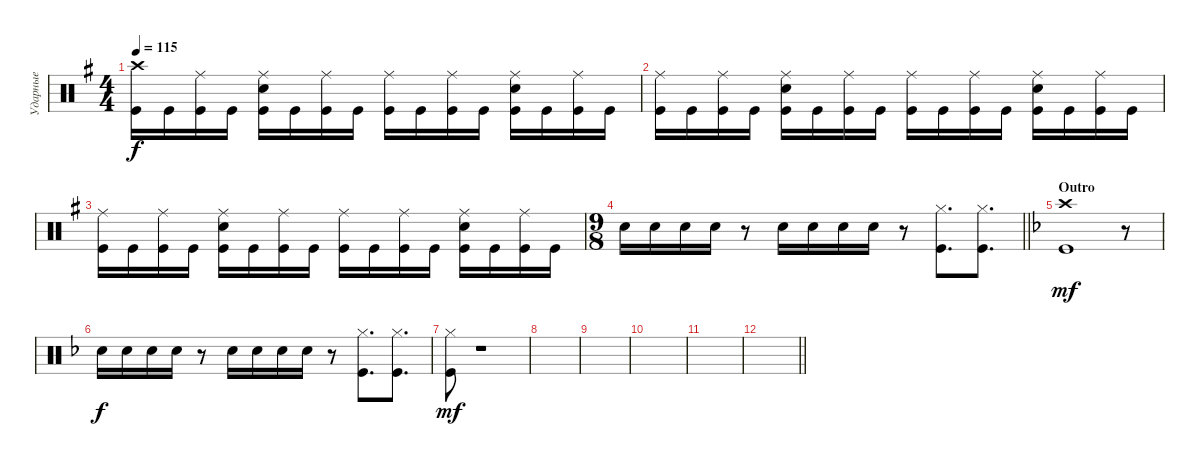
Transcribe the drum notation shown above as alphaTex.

\track ("Ударные" "Ударные") {instrument percussion}
\staff {score}
\articulation defaults
\ts (4 4)
\tempo 115
\clef neutral
\ks eminor
("Kick (hit)" "Crash high (hit)").16{dy f} "Kick (hit)".16 ("Kick (hit)" "Ride (middle)").16 "Kick (hit)".16 ("Kick (hit)" "Snare (hit) 2" "Ride (middle)").16 "Kick (hit)".16 ("Kick (hit)" "Ride (middle)").16 "Kick (hit)".16 ("Kick (hit)" "Ride (middle)").16 "Kick (hit)".16 ("Kick (hit)" "Ride (middle)").16 "Kick (hit)".16 ("Kick (hit)" "Snare (hit) 2" "Ride (middle)").16 "Kick (hit)".16 ("Kick (hit)" "Ride (middle)").16 "Kick (hit)".16 |
("Kick (hit)" "Ride (middle)").16 "Kick (hit)".16 ("Kick (hit)" "Ride (middle)").16 "Kick (hit)".16 ("Kick (hit)" "Snare (hit) 2" "Ride (middle)").16 "Kick (hit)".16 ("Kick (hit)" "Ride (middle)").16 "Kick (hit)".16 ("Kick (hit)" "Ride (middle)").16 "Kick (hit)".16 ("Kick (hit)" "Ride (middle)").16 "Kick (hit)".16 ("Kick (hit)" "Snare (hit) 2" "Ride (middle)").16 "Kick (hit)".16 ("Kick (hit)" "Ride (middle)").16 "Kick (hit)".16 |
("Kick (hit)" "Ride (middle)").16 "Kick (hit)".16 ("Kick (hit)" "Ride (middle)").16 "Kick (hit)".16 ("Kick (hit)" "Snare (hit) 2" "Ride (middle)").16 "Kick (hit)".16 ("Kick (hit)" "Ride (middle)").16 "Kick (hit)".16 ("Kick (hit)" "Ride (middle)").16 "Kick (hit)".16 ("Kick (hit)" "Ride (middle)").16 "Kick (hit)".16 ("Kick (hit)" "Snare (hit) 2" "Ride (middle)").16 "Kick (hit)".16 ("Kick (hit)" "Ride (middle)").16 "Kick (hit)".16 |
\ts (9 8)
\barLineRight lightlight "Snare (hit) 2".16 "Snare (hit) 2".16 "Snare (hit) 2".16 "Snare (hit) 2".16
r.8 "Snare (hit) 2".16 "Snare (hit) 2".16 "Snare (hit) 2".16 "Snare (hit) 2".16 r.8 ("Kick (hit)" "Hi-Hat (closed)").8{d} ("Kick (hit)" "Hi-Hat (closed)").8{d} |
\section ("" "Outro")
\ks dminor
("Kick (hit)" "Crash high (hit)").1{dy mf} r.8 |
"Snare (hit) 2".16{dy f} "Snare (hit) 2".16 "Snare (hit) 2".16 "Snare (hit) 2".16 r.8 "Snare (hit) 2".16 "Snare (hit) 2".16 "Snare (hit) 2".16 "Snare (hit) 2".16 r.8 ("Kick (hit)" "Hi-Hat (closed)").8{d} ("Kick (hit)" "Hi-Hat (closed)").8{d} |
("Kick (hit)" "Hi-Hat (closed)").8{dy mf} r.1 |
|
|
|
|
\barLineRight lightlight
